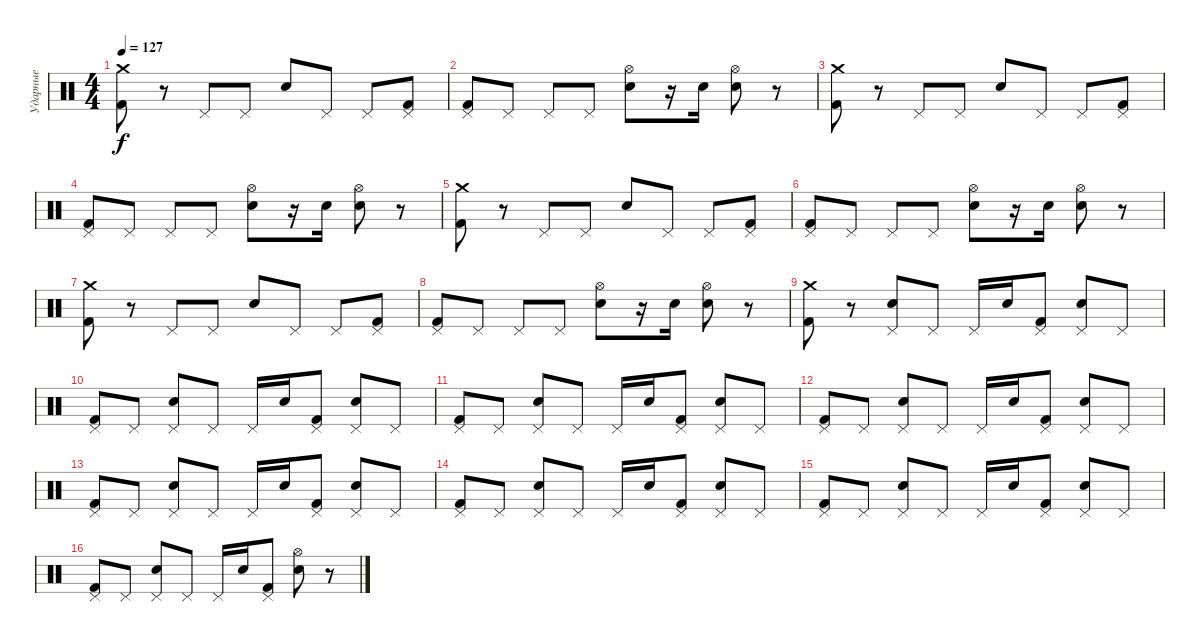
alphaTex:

\track ("Ударные" "Ударные") {instrument percussion}
\staff {score}
\articulation defaults
\ts (4 4)
\tempo 127
\clef neutral
\ks c
("Crash medium (hit)" "Kick (hit) 2").8{dy f} r.8 "Pedal Hi-Hat (hit)".8 "Pedal Hi-Hat (hit)".8 "Electric Snare (hit)".8 "Pedal Hi-Hat (hit)".8 "Pedal Hi-Hat (hit)".8 ("Kick (hit) 2" "Pedal Hi-Hat (hit)").8 |
("Kick (hit) 2" "Pedal Hi-Hat (hit)").8 "Pedal Hi-Hat (hit)".8 "Pedal Hi-Hat (hit)".8 "Pedal Hi-Hat (hit)".8 ("Electric Snare (hit)" "Hi-Hat (open)").8 r.16 "Electric Snare (hit)".16 ("Hi-Hat (open)" "Electric Snare (hit)").8 r.8 |
("Crash medium (hit)" "Kick (hit) 2").8 r.8 "Pedal Hi-Hat (hit)".8 "Pedal Hi-Hat (hit)".8 "Electric Snare (hit)".8 "Pedal Hi-Hat (hit)".8 "Pedal Hi-Hat (hit)".8 ("Pedal Hi-Hat (hit)" "Kick (hit) 2").8 |
("Kick (hit) 2" "Pedal Hi-Hat (hit)").8 "Pedal Hi-Hat (hit)".8 "Pedal Hi-Hat (hit)".8 "Pedal Hi-Hat (hit)".8 ("Electric Snare (hit)" "Hi-Hat (open)").8 r.16 "Electric Snare (hit)".16 ("Electric Snare (hit)" "Hi-Hat (open)").8 r.8 |
("Crash medium (hit)" "Kick (hit) 2").8 r.8 "Pedal Hi-Hat (hit)".8 "Pedal Hi-Hat (hit)".8 "Electric Snare (hit)".8 "Pedal Hi-Hat (hit)".8 "Pedal Hi-Hat (hit)".8 ("Pedal Hi-Hat (hit)" "Kick (hit) 2").8 |
("Pedal Hi-Hat (hit)" "Kick (hit) 2").8 "Pedal Hi-Hat (hit)".8 "Pedal Hi-Hat (hit)".8 "Pedal Hi-Hat (hit)".8 ("Electric Snare (hit)" "Hi-Hat (open)").8 r.16 "Electric Snare (hit)".16 ("Electric Snare (hit)" "Hi-Hat (open)").8 r.8 |
("Crash medium (hit)" "Kick (hit) 2").8 r.8 "Pedal Hi-Hat (hit)".8 "Pedal Hi-Hat (hit)".8 "Electric Snare (hit)".8 "Pedal Hi-Hat (hit)".8 "Pedal Hi-Hat (hit)".8 ("Kick (hit) 2" "Pedal Hi-Hat (hit)").8 |
("Kick (hit) 2" "Pedal Hi-Hat (hit)").8 "Pedal Hi-Hat (hit)".8 "Pedal Hi-Hat (hit)".8 "Pedal Hi-Hat (hit)".8 ("Electric Snare (hit)" "Hi-Hat (open)").8 r.16 "Electric Snare (hit)".16 ("Electric Snare (hit)" "Hi-Hat (open)").8 r.8 |
("Kick (hit) 2" "Crash medium (hit)").8 r.8 ("Electric Snare (hit)" "Pedal Hi-Hat (hit)").8 "Pedal Hi-Hat (hit)".8 "Pedal Hi-Hat (hit)".16 "Electric Snare (hit)".16 ("Pedal Hi-Hat (hit)" "Kick (hit) 2").8 ("Electric Snare (hit)" "Pedal Hi-Hat (hit)").8 "Pedal Hi-Hat (hit)".8 |
("Pedal Hi-Hat (hit)" "Kick (hit) 2").8 "Pedal Hi-Hat (hit)".8 ("Pedal Hi-Hat (hit)" "Electric Snare (hit)").8 "Pedal Hi-Hat (hit)".8 "Pedal Hi-Hat (hit)".16 "Electric Snare (hit)".16 ("Kick (hit) 2" "Pedal Hi-Hat (hit)").8 ("Pedal Hi-Hat (hit)" "Electric Snare (hit)").8 "Pedal Hi-Hat (hit)".8 |
("Kick (hit) 2" "Pedal Hi-Hat (hit)").8 "Pedal Hi-Hat (hit)".8 ("Electric Snare (hit)" "Pedal Hi-Hat (hit)").8 "Pedal Hi-Hat (hit)".8 "Pedal Hi-Hat (hit)".16 "Electric Snare (hit)".16 ("Kick (hit) 2" "Pedal Hi-Hat (hit)").8 ("Pedal Hi-Hat (hit)" "Electric Snare (hit)").8 "Pedal Hi-Hat (hit)".8 |
("Pedal Hi-Hat (hit)" "Kick (hit) 2").8 "Pedal Hi-Hat (hit)".8 ("Pedal Hi-Hat (hit)" "Electric Snare (hit)").8 "Pedal Hi-Hat (hit)".8 "Pedal Hi-Hat (hit)".16 "Electric Snare (hit)".16 ("Kick (hit) 2" "Pedal Hi-Hat (hit)").8 ("Pedal Hi-Hat (hit)" "Electric Snare (hit)").8 "Pedal Hi-Hat (hit)".8 |
("Pedal Hi-Hat (hit)" "Kick (hit) 2").8 "Pedal Hi-Hat (hit)".8 ("Pedal Hi-Hat (hit)" "Electric Snare (hit)").8 "Pedal Hi-Hat (hit)".8 "Pedal Hi-Hat (hit)".16 "Electric Snare (hit)".16 ("Pedal Hi-Hat (hit)" "Kick (hit) 2").8 ("Electric Snare (hit)" "Pedal Hi-Hat (hit)").8 "Pedal Hi-Hat (hit)".8 |
("Kick (hit) 2" "Pedal Hi-Hat (hit)").8 "Pedal Hi-Hat (hit)".8 ("Electric Snare (hit)" "Pedal Hi-Hat (hit)").8 "Pedal Hi-Hat (hit)".8 "Pedal Hi-Hat (hit)".16 "Electric Snare (hit)".16 ("Pedal Hi-Hat (hit)" "Kick (hit) 2").8 ("Electric Snare (hit)" "Pedal Hi-Hat (hit)").8 "Pedal Hi-Hat (hit)".8 |
("Kick (hit) 2" "Pedal Hi-Hat (hit)").8 "Pedal Hi-Hat (hit)".8 ("Pedal Hi-Hat (hit)" "Electric Snare (hit)").8 "Pedal Hi-Hat (hit)".8 "Pedal Hi-Hat (hit)".16 "Electric Snare (hit)".16 ("Kick (hit) 2" "Pedal Hi-Hat (hit)").8 ("Electric Snare (hit)" "Pedal Hi-Hat (hit)").8 "Pedal Hi-Hat (hit)".8 |
("Pedal Hi-Hat (hit)" "Kick (hit) 2").8 "Pedal Hi-Hat (hit)".8 ("Pedal Hi-Hat (hit)" "Electric Snare (hit)").8 "Pedal Hi-Hat (hit)".8 "Pedal Hi-Hat (hit)".16 "Electric Snare (hit)".16 ("Pedal Hi-Hat (hit)" "Kick (hit) 2").8 ("Electric Snare (hit)" "Hi-Hat (open)").8 r.8
